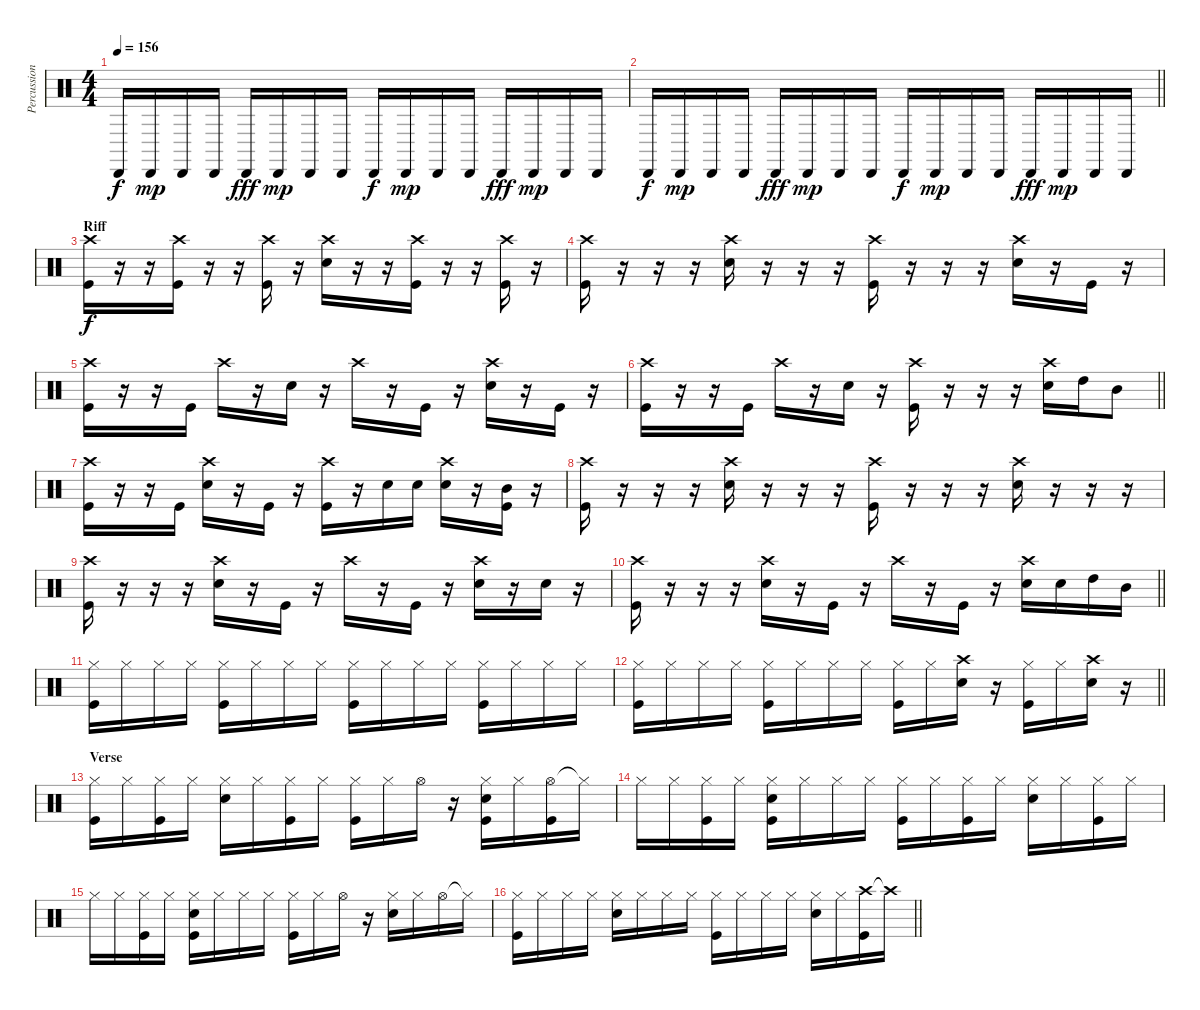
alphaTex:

\track ("Percussion" "Percussion") {instrument percussion}
\staff {score}
\articulation defaults
\ts (4 4)
\tempo 156
\clef neutral
\ks c "Cabasa (hit)".16{dy f} "Cabasa (hit)".16{dy mp} "Cabasa (hit)".16 "Cabasa (hit)".16 "Cabasa (hit)".16{dy fff} "Cabasa (hit)".16{dy mp} "Cabasa (hit)".16 "Cabasa (hit)".16 "Cabasa (hit)".16{dy f} "Cabasa (hit)".16{dy mp} "Cabasa (hit)".16 "Cabasa (hit)".16 "Cabasa (hit)".16{dy fff} "Cabasa (hit)".16{dy mp} "Cabasa (hit)".16 "Cabasa (hit)".16
|
\barLineRight lightlight "Cabasa (hit)".16{dy f} "Cabasa (hit)".16{dy mp} "Cabasa (hit)".16 "Cabasa (hit)".16 "Cabasa (hit)".16{dy fff} "Cabasa (hit)".16{dy mp} "Cabasa (hit)".16 "Cabasa (hit)".16 "Cabasa (hit)".16{dy f} "Cabasa (hit)".16{dy mp} "Cabasa (hit)".16 "Cabasa (hit)".16 "Cabasa (hit)".16{dy fff} "Cabasa (hit)".16{dy mp} "Cabasa (hit)".16 "Cabasa (hit)".16
|
\section ("" "Riff")
("Crash high (hit)" "Kick (hit)").16{dy f} r.16 r.16 ("Crash high (hit)" "Kick (hit)").16 r.16 r.16 ("Crash high (hit)" "Kick (hit)").16 r.16 ("Crash high (hit)" "Snare (hit) 2").16 r.16 r.16 ("Crash high (hit)" "Kick (hit)").16 r.16 r.16 ("Crash high (hit)" "Kick (hit)").16 r.16 |
("Crash high (hit)" "Kick (hit)").16 r.16 r.16 r.16 ("Crash high (hit)" "Snare (hit) 2").16 r.16 r.16 r.16 ("Crash high (hit)" "Kick (hit)").16 r.16 r.16 r.16 ("Crash high (hit)" "Snare (hit) 2").16 r.16 "Kick (hit)".16 r.16 |
("Crash high (hit)" "Kick (hit)").16 r.16 r.16 "Kick (hit)".16 "Crash high (hit)".16 r.16 "Snare (hit) 2".16 r.16 "Crash high (hit)".16 r.16 "Kick (hit)".16 r.16 ("Crash high (hit)" "Snare (hit) 2").16 r.16 "Kick (hit)".16 r.16 |
\barLineRight lightlight
("Crash high (hit)" "Kick (hit)").16 r.16 r.16 "Kick (hit)".16 "Crash high (hit)".16 r.16 "Snare (hit) 2".16 r.16 ("Crash high (hit)" "Kick (hit)").16 r.16 r.16 r.16 ("Crash high (hit)" "Snare (hit) 2").16 "High Tom (hit)".16 "Mid Tom (hit)".8 |
("Crash high (hit)" "Kick (hit)").16 r.16 r.16 "Kick (hit)".16 ("Crash high (hit)" "Snare (hit) 2").16 r.16 "Kick (hit)".16 r.16 ("Crash high (hit)" "Kick (hit)").16 r.16 "Snare (hit) 2".16 "Snare (hit) 2".16 ("Crash high (hit)" "Snare (hit) 2").16 r.16 ("Mid Tom (hit)" "Kick (hit)").16 r.16 |
("Crash high (hit)" "Kick (hit)").16 r.16 r.16 r.16 ("Crash high (hit)" "Snare (hit) 2").16 r.16 r.16 r.16 ("Crash high (hit)" "Kick (hit)").16 r.16 r.16 r.16 ("Crash high (hit)" "Snare (hit) 2").16 r.16 r.16 r.16 |
("Crash high (hit)" "Kick (hit)").16 r.16 r.16 r.16 ("Crash high (hit)" "Snare (hit) 2").16 r.16 "Kick (hit)".16 r.16 "Crash high (hit)".16 r.16 "Kick (hit)".16 r.16 ("Crash high (hit)" "Snare (hit) 2").16 r.16 "Snare (hit) 2".16 r.16 |
\barLineRight lightlight
("Crash high (hit)" "Kick (hit)").16 r.16 r.16 r.16 ("Crash high (hit)" "Snare (hit) 2").16 r.16 "Kick (hit)".16 r.16 "Crash high (hit)".16 r.16 "Kick (hit)".16 r.16 ("Crash high (hit)" "Snare (hit) 2").16 "Snare (hit) 2".16 "High Tom (hit)".16 "Mid Tom (hit)".16 |
("Hi-Hat (closed)" "Kick (hit)").16 "Hi-Hat (closed)".16 "Hi-Hat (closed)".16 "Hi-Hat (closed)".16 ("Hi-Hat (closed)" "Kick (hit)").16 "Hi-Hat (closed)".16 "Hi-Hat (closed)".16 "Hi-Hat (closed)".16 ("Hi-Hat (closed)" "Kick (hit)").16 "Hi-Hat (closed)".16 "Hi-Hat (closed)".16 "Hi-Hat (closed)".16 ("Hi-Hat (closed)" "Kick (hit)").16 "Hi-Hat (closed)".16 "Hi-Hat (closed)".16 "Hi-Hat (closed)".16 |
\barLineRight lightlight
("Hi-Hat (closed)" "Kick (hit)").16 "Hi-Hat (closed)".16 "Hi-Hat (closed)".16 "Hi-Hat (closed)".16 ("Hi-Hat (closed)" "Kick (hit)").16 "Hi-Hat (closed)".16 "Hi-Hat (closed)".16 "Hi-Hat (closed)".16 ("Hi-Hat (closed)" "Kick (hit)").16 "Hi-Hat (closed)".16 ("Crash high (hit)" "Snare (hit) 2").16 r.16 ("Hi-Hat (closed)" "Kick (hit)").16 "Hi-Hat (closed)".16 ("Crash high (hit)" "Snare (hit) 2").16 r.16 |
\section ("" "Verse")
("Hi-Hat (closed)" "Kick (hit)").16 "Hi-Hat (closed)".16 ("Hi-Hat (closed)" "Kick (hit)").16 "Hi-Hat (closed)".16 ("Hi-Hat (closed)" "Snare (hit) 2").16 "Hi-Hat (closed)".16 ("Hi-Hat (closed)" "Kick (hit)").16 "Hi-Hat (closed)".16 ("Hi-Hat (closed)" "Kick (hit)").16 "Hi-Hat (closed)".16 "Hi-Hat (open)".16 r.16 ("Hi-Hat (closed)" "Snare (hit) 2" "Kick (hit)").16 "Hi-Hat (closed)".16 ("Hi-Hat (open)" "Kick (hit)").16 "Hi-Hat (closed)"{t}.16 |
"Hi-Hat (closed)".16 "Hi-Hat (closed)".16 ("Hi-Hat (closed)" "Kick (hit)").16 "Hi-Hat (closed)".16 ("Hi-Hat (closed)" "Snare (hit) 2" "Kick (hit)").16 "Hi-Hat (closed)".16 "Hi-Hat (closed)".16 "Hi-Hat (closed)".16 ("Hi-Hat (closed)" "Kick (hit)").16 "Hi-Hat (closed)".16 ("Hi-Hat (closed)" "Kick (hit)").16 "Hi-Hat (closed)".16 ("Hi-Hat (closed)" "Snare (hit) 2").16 "Hi-Hat (closed)".16 ("Hi-Hat (closed)" "Kick (hit)").16 "Hi-Hat (closed)".16 |
"Hi-Hat (closed)".16 "Hi-Hat (closed)".16 ("Hi-Hat (closed)" "Kick (hit)").16 "Hi-Hat (closed)".16 ("Hi-Hat (closed)" "Snare (hit) 2" "Kick (hit)").16 "Hi-Hat (closed)".16 "Hi-Hat (closed)".16 "Hi-Hat (closed)".16 ("Hi-Hat (closed)" "Kick (hit)").16 "Hi-Hat (closed)".16 "Hi-Hat (open)".16 r.16 ("Hi-Hat (closed)" "Snare (hit) 2").16 "Hi-Hat (closed)".16 "Hi-Hat (open)".16 "Hi-Hat (closed)"{t}.16 |
\barLineRight lightlight
("Hi-Hat (closed)" "Kick (hit)").16 "Hi-Hat (closed)".16 "Hi-Hat (closed)".16 "Hi-Hat (closed)".16 ("Hi-Hat (closed)" "Snare (hit) 2").16 "Hi-Hat (closed)".16 "Hi-Hat (closed)".16 "Hi-Hat (closed)".16 ("Hi-Hat (closed)" "Kick (hit)").16 "Hi-Hat (closed)".16 "Hi-Hat (closed)".16 "Hi-Hat (closed)".16 ("Hi-Hat (closed)" "Snare (hit) 2").16 "Hi-Hat (closed)".16 ("Crash high (hit)" "Kick (hit)").16 "Crash high (hit)"{t}.16
